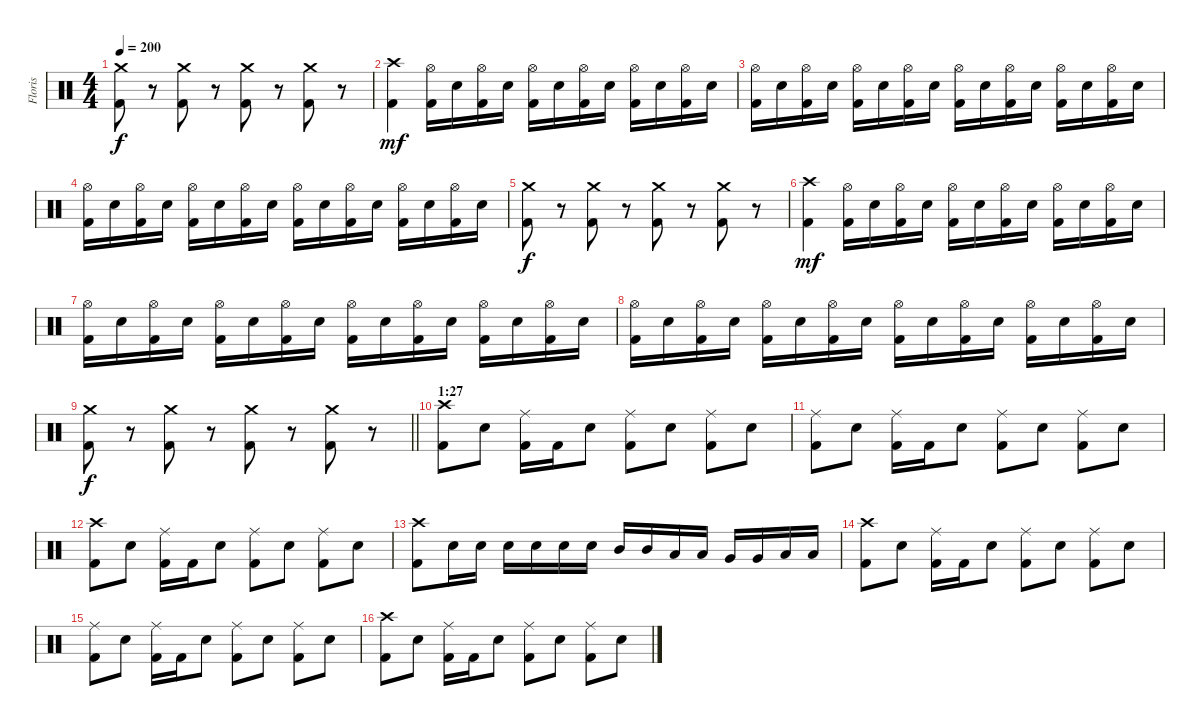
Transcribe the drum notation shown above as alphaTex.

\track ("Floris" "Floris") {instrument percussion}
\staff {score}
\articulation defaults
\ts (4 4)
\tempo 200
\clef neutral
\ks c
("Crash medium (hit)" "Kick (hit) 2").8{dy f} r.8{volume 0} ("Crash medium (hit)" "Kick (hit) 2").8{volume 16} r.8{volume 0} ("Crash medium (hit)" "Kick (hit) 2").8{volume 16} r.8{volume 0} ("Crash medium (hit)" "Kick (hit) 2").8{volume 16} r.8{volume 0} |
("Crash high (hit)" "Kick (hit) 2").4{dy mf volume 16} ("Hi-Hat (open)" "Kick (hit) 2").16 "Electric Snare (hit)".16 ("Hi-Hat (open)" "Kick (hit) 2").16 "Electric Snare (hit)".16 ("Hi-Hat (open)" "Kick (hit) 2").16 "Electric Snare (hit)".16 ("Hi-Hat (open)" "Kick (hit) 2").16 "Electric Snare (hit)".16 ("Hi-Hat (open)" "Kick (hit) 2").16 "Electric Snare (hit)".16 ("Hi-Hat (open)" "Kick (hit) 2").16 "Electric Snare (hit)".16 |
("Hi-Hat (open)" "Kick (hit) 2").16 "Electric Snare (hit)".16 ("Hi-Hat (open)" "Kick (hit) 2").16 "Electric Snare (hit)".16 ("Hi-Hat (open)" "Kick (hit) 2").16 "Electric Snare (hit)".16 ("Hi-Hat (open)" "Kick (hit) 2").16 "Electric Snare (hit)".16 ("Hi-Hat (open)" "Kick (hit) 2").16 "Electric Snare (hit)".16 ("Hi-Hat (open)" "Kick (hit) 2").16 "Electric Snare (hit)".16 ("Hi-Hat (open)" "Kick (hit) 2").16 "Electric Snare (hit)".16 ("Hi-Hat (open)" "Kick (hit) 2").16 "Electric Snare (hit)".16 |
("Hi-Hat (open)" "Kick (hit) 2").16 "Electric Snare (hit)".16 ("Hi-Hat (open)" "Kick (hit) 2").16 "Electric Snare (hit)".16 ("Hi-Hat (open)" "Kick (hit) 2").16 "Electric Snare (hit)".16 ("Hi-Hat (open)" "Kick (hit) 2").16 "Electric Snare (hit)".16 ("Hi-Hat (open)" "Kick (hit) 2").16 "Electric Snare (hit)".16 ("Hi-Hat (open)" "Kick (hit) 2").16 "Electric Snare (hit)".16 ("Hi-Hat (open)" "Kick (hit) 2").16 "Electric Snare (hit)".16 ("Hi-Hat (open)" "Kick (hit) 2").16 "Electric Snare (hit)".16 |
("Crash medium (hit)" "Kick (hit) 2").8{dy f} r.8{volume 0} ("Crash medium (hit)" "Kick (hit) 2").8{volume 16} r.8{volume 0} ("Crash medium (hit)" "Kick (hit) 2").8{volume 16} r.8{volume 0} ("Crash medium (hit)" "Kick (hit) 2").8{volume 16} r.8{volume 0} |
("Crash high (hit)" "Kick (hit) 2").4{dy mf volume 16} ("Hi-Hat (open)" "Kick (hit) 2").16 "Electric Snare (hit)".16 ("Hi-Hat (open)" "Kick (hit) 2").16 "Electric Snare (hit)".16 ("Hi-Hat (open)" "Kick (hit) 2").16 "Electric Snare (hit)".16 ("Hi-Hat (open)" "Kick (hit) 2").16 "Electric Snare (hit)".16 ("Hi-Hat (open)" "Kick (hit) 2").16 "Electric Snare (hit)".16 ("Hi-Hat (open)" "Kick (hit) 2").16 "Electric Snare (hit)".16 |
("Hi-Hat (open)" "Kick (hit) 2").16 "Electric Snare (hit)".16 ("Hi-Hat (open)" "Kick (hit) 2").16 "Electric Snare (hit)".16 ("Hi-Hat (open)" "Kick (hit) 2").16 "Electric Snare (hit)".16 ("Hi-Hat (open)" "Kick (hit) 2").16 "Electric Snare (hit)".16 ("Hi-Hat (open)" "Kick (hit) 2").16 "Electric Snare (hit)".16 ("Hi-Hat (open)" "Kick (hit) 2").16 "Electric Snare (hit)".16 ("Hi-Hat (open)" "Kick (hit) 2").16 "Electric Snare (hit)".16 ("Hi-Hat (open)" "Kick (hit) 2").16 "Electric Snare (hit)".16 |
("Hi-Hat (open)" "Kick (hit) 2").16 "Electric Snare (hit)".16 ("Hi-Hat (open)" "Kick (hit) 2").16 "Electric Snare (hit)".16 ("Hi-Hat (open)" "Kick (hit) 2").16 "Electric Snare (hit)".16 ("Hi-Hat (open)" "Kick (hit) 2").16 "Electric Snare (hit)".16 ("Hi-Hat (open)" "Kick (hit) 2").16 "Electric Snare (hit)".16 ("Hi-Hat (open)" "Kick (hit) 2").16 "Electric Snare (hit)".16 ("Hi-Hat (open)" "Kick (hit) 2").16 "Electric Snare (hit)".16 ("Hi-Hat (open)" "Kick (hit) 2").16 "Electric Snare (hit)".16 |
\barLineRight lightlight
("Crash medium (hit)" "Kick (hit) 2").8{dy f} r.8{volume 0} ("Crash medium (hit)" "Kick (hit) 2").8{volume 16} r.8{volume 0} ("Crash medium (hit)" "Kick (hit) 2").8{volume 16} r.8{volume 0} ("Crash medium (hit)" "Kick (hit) 2").8{volume 16} r.8{volume 0} |
\section ("" "1:27")
("Crash high (hit)" "Kick (hit) 2").8{volume 16} "Electric Snare (hit)".8 ("Ride (middle)" "Kick (hit) 2").16 "Kick (hit) 2".16 "Electric Snare (hit)".8 ("Ride (middle)" "Kick (hit) 2").8 "Electric Snare (hit)".8 ("Ride (middle)" "Kick (hit) 2").8 "Electric Snare (hit)".8 |
("Ride (middle)" "Kick (hit) 2").8 "Electric Snare (hit)".8 ("Ride (middle)" "Kick (hit) 2").16 "Kick (hit) 2".16 "Electric Snare (hit)".8 ("Ride (middle)" "Kick (hit) 2").8 "Electric Snare (hit)".8 ("Ride (middle)" "Kick (hit) 2").8 "Electric Snare (hit)".8 |
("Crash high (hit)" "Kick (hit) 2").8 "Electric Snare (hit)".8 ("Ride (middle)" "Kick (hit) 2").16 "Kick (hit) 2".16 "Electric Snare (hit)".8 ("Ride (middle)" "Kick (hit) 2").8 "Electric Snare (hit)".8 ("Ride (middle)" "Kick (hit) 2").8 "Electric Snare (hit)".8 |
("Crash high (hit)" "Kick (hit) 2").8 "Electric Snare (hit)".16 "Electric Snare (hit)".16 "Electric Snare (hit)".16 "Electric Snare (hit)".16 "Electric Snare (hit)".16 "Electric Snare (hit)".16 "Mid Tom (hit)".16 "Mid Tom (hit)".16 "Low Tom (hit)".16 "Low Tom (hit)".16 "Very Low Tom (hit)".16 "Very Low Tom (hit)".16 "Low Floor Tom (hit)".16 "Low Floor Tom (hit)".16 |
("Crash high (hit)" "Kick (hit) 2").8 "Electric Snare (hit)".8 ("Ride (middle)" "Kick (hit) 2").16 "Kick (hit) 2".16 "Electric Snare (hit)".8 ("Ride (middle)" "Kick (hit) 2").8 "Electric Snare (hit)".8 ("Ride (middle)" "Kick (hit) 2").8 "Electric Snare (hit)".8 |
("Ride (middle)" "Kick (hit) 2").8 "Electric Snare (hit)".8 ("Ride (middle)" "Kick (hit) 2").16 "Kick (hit) 2".16 "Electric Snare (hit)".8 ("Ride (middle)" "Kick (hit) 2").8 "Electric Snare (hit)".8 ("Ride (middle)" "Kick (hit) 2").8 "Electric Snare (hit)".8 |
("Crash high (hit)" "Kick (hit) 2").8 "Electric Snare (hit)".8 ("Ride (middle)" "Kick (hit) 2").16 "Kick (hit) 2".16 "Electric Snare (hit)".8 ("Ride (middle)" "Kick (hit) 2").8 "Electric Snare (hit)".8 ("Ride (middle)" "Kick (hit) 2").8 "Electric Snare (hit)".8
